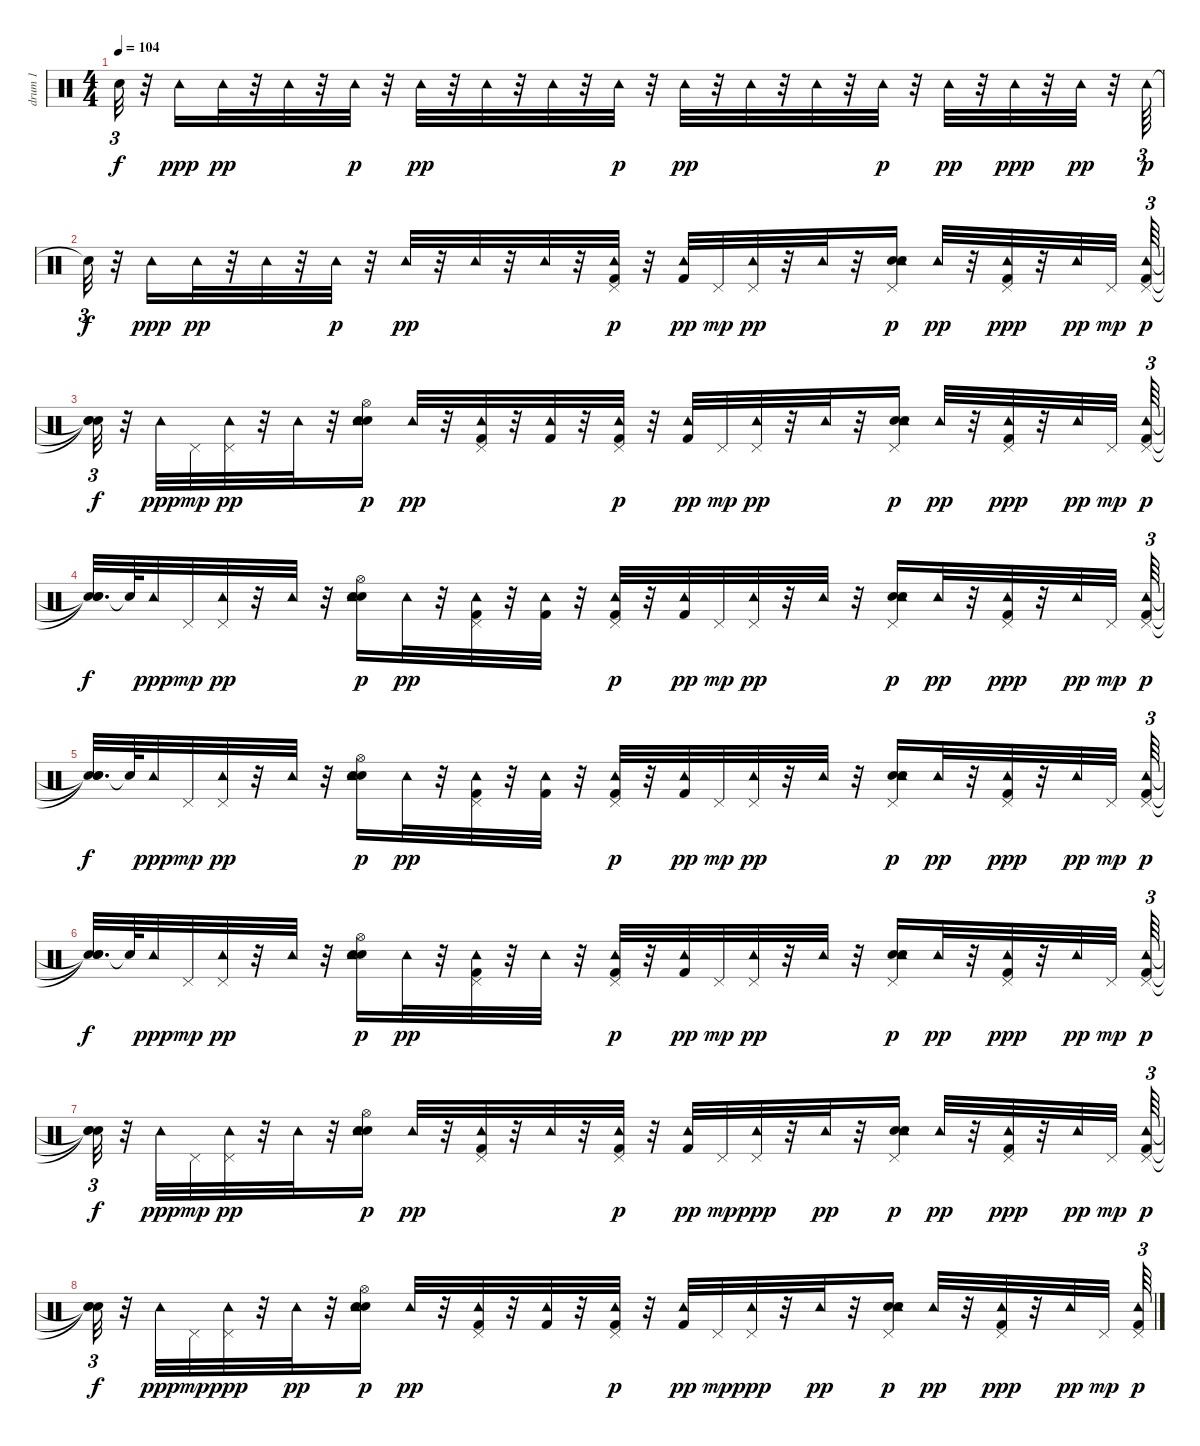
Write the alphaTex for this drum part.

\track ("drum 1" "drum 1") {instrument percussion}
\staff {score}
\articulation defaults
\ts (4 4)
\tempo 104
\clef neutral
\ks c "Snare (hit)"{t}.32{tu (3 2) dy f}
r.32 "Tambourine (hit)".16{dy ppp} "Tambourine (hit)".32{dy pp} r.32 "Tambourine (hit)".32 r.32 "Tambourine (hit)".32{dy p} r.32 "Tambourine (hit)".32{dy pp} r.32 "Tambourine (hit)".32 r.32 "Tambourine (hit)".32 r.32 "Tambourine (hit)".32{dy p} r.32 "Tambourine (hit)".32{dy pp} r.32 "Tambourine (hit)".32 r.32 "Tambourine (hit)".32 r.32 "Tambourine (hit)".32{dy p} r.32 "Tambourine (hit)".32{dy pp} r.32 "Tambourine (hit)".32{dy ppp} r.32 "Tambourine (hit)".32{dy pp} r.32 "Tambourine (hit)".64{tu (3 2) dy p} |
"Snare (hit)"{t}.32{tu (3 2) dy f} r.32 "Tambourine (hit)".16{dy ppp} "Tambourine (hit)".32{dy pp} r.32 "Tambourine (hit)".32 r.32 "Tambourine (hit)".32{dy p} r.32 "Tambourine (hit)".32{dy pp} r.32 "Tambourine (hit)".32 r.32 "Tambourine (hit)".32 r.32 ("Kick (hit) 2" "Pedal Hi-Hat (hit)" "Tambourine (hit)").32{dy p} r.32 ("Kick (hit) 2" "Tambourine (hit)").32{dy pp} "Pedal Hi-Hat (hit)".32{dy mp} ("Pedal Hi-Hat (hit)" "Tambourine (hit)").32{dy pp} r.32 "Tambourine (hit)".32 r.32 ("Hand Clap (hit)" "Electric Snare (hit)" "Pedal Hi-Hat (hit)" "Tambourine (hit)").16{dy p} "Tambourine (hit)".32{dy pp} r.32 ("Kick (hit) 2" "Pedal Hi-Hat (hit)" "Tambourine (hit)").32{dy ppp} r.32 "Tambourine (hit)".32{dy pp} "Pedal Hi-Hat (hit)".32{dy mp beam splitsecondary} ("Kick (hit) 2" "Pedal Hi-Hat (hit)" "Tambourine (hit)").64{tu (3 2) dy p} |
("Snare (hit)"{t} "Snare (hit)"{t} "Snare (hit)"{t}).32{tu (3 2) dy f} r.32 "Tambourine (hit)".32{dy ppp} "Pedal Hi-Hat (hit)".32{dy mp} ("Pedal Hi-Hat (hit)" "Tambourine (hit)").32{dy pp} r.32 "Tambourine (hit)".32 r.32 ("Hand Clap (hit)" "Electric Snare (hit)" "Hi-Hat (open)" "Tambourine (hit)").16{dy p} "Tambourine (hit)".32{dy pp} r.32 ("Kick (hit) 2" "Pedal Hi-Hat (hit)" "Tambourine (hit)").32 r.32 ("Kick (hit) 2" "Tambourine (hit)").32 r.32 ("Kick (hit) 2" "Pedal Hi-Hat (hit)" "Tambourine (hit)").32{dy p} r.32 ("Kick (hit) 2" "Tambourine (hit)").32{dy pp} "Pedal Hi-Hat (hit)".32{dy mp} ("Pedal Hi-Hat (hit)" "Tambourine (hit)").32{dy pp} r.32 "Tambourine (hit)".32 r.32 ("Hand Clap (hit)" "Electric Snare (hit)" "Pedal Hi-Hat (hit)" "Tambourine (hit)").16{dy p} "Tambourine (hit)".32{dy pp} r.32 ("Kick (hit) 2" "Pedal Hi-Hat (hit)" "Tambourine (hit)").32{dy ppp} r.32 "Tambourine (hit)".32{dy pp} "Pedal Hi-Hat (hit)".32{dy mp beam splitsecondary} ("Kick (hit) 2" "Pedal Hi-Hat (hit)" "Tambourine (hit)").64{tu (3 2) dy p} |
("Snare (hit)"{t} "Snare (hit)"{t} "Snare (hit)"{t}).32{d dy f} "Snare (hit)"{t}.64 "Tambourine (hit)".32{dy ppp} "Pedal Hi-Hat (hit)".32{dy mp} ("Pedal Hi-Hat (hit)" "Tambourine (hit)").32{dy pp} r.32 "Tambourine (hit)".32 r.32 ("Hand Clap (hit)" "Electric Snare (hit)" "Hi-Hat (open)" "Tambourine (hit)").16{dy p} "Tambourine (hit)".32{dy pp} r.32 ("Kick (hit) 2" "Pedal Hi-Hat (hit)" "Tambourine (hit)").32 r.32 ("Kick (hit) 2" "Tambourine (hit)").32 r.32 ("Kick (hit) 2" "Pedal Hi-Hat (hit)" "Tambourine (hit)").32{dy p} r.32 ("Kick (hit) 2" "Tambourine (hit)").32{dy pp} "Pedal Hi-Hat (hit)".32{dy mp} ("Pedal Hi-Hat (hit)" "Tambourine (hit)").32{dy pp} r.32 "Tambourine (hit)".32 r.32 ("Hand Clap (hit)" "Electric Snare (hit)" "Pedal Hi-Hat (hit)" "Tambourine (hit)").16{dy p} "Tambourine (hit)".32{dy pp} r.32 ("Kick (hit) 2" "Pedal Hi-Hat (hit)" "Tambourine (hit)").32{dy ppp} r.32 "Tambourine (hit)".32{dy pp} "Pedal Hi-Hat (hit)".32{dy mp} ("Kick (hit) 2" "Pedal Hi-Hat (hit)" "Tambourine (hit)").64{tu (3 2) dy p} |
("Snare (hit)"{t} "Snare (hit)"{t} "Snare (hit)"{t}).32{d dy f} "Snare (hit)"{t}.64 "Tambourine (hit)".32{dy ppp} "Pedal Hi-Hat (hit)".32{dy mp} ("Pedal Hi-Hat (hit)" "Tambourine (hit)").32{dy pp} r.32 "Tambourine (hit)".32 r.32 ("Hand Clap (hit)" "Electric Snare (hit)" "Hi-Hat (open)" "Tambourine (hit)").16{dy p} "Tambourine (hit)".32{dy pp} r.32 ("Kick (hit) 2" "Pedal Hi-Hat (hit)" "Tambourine (hit)").32 r.32 ("Kick (hit) 2" "Tambourine (hit)").32 r.32 ("Kick (hit) 2" "Pedal Hi-Hat (hit)" "Tambourine (hit)").32{dy p} r.32 ("Kick (hit) 2" "Tambourine (hit)").32{dy pp} "Pedal Hi-Hat (hit)".32{dy mp} ("Pedal Hi-Hat (hit)" "Tambourine (hit)").32{dy pp} r.32 "Tambourine (hit)".32 r.32 ("Hand Clap (hit)" "Electric Snare (hit)" "Pedal Hi-Hat (hit)" "Tambourine (hit)").16{dy p} "Tambourine (hit)".32{dy pp} r.32 ("Kick (hit) 2" "Pedal Hi-Hat (hit)" "Tambourine (hit)").32{dy ppp} r.32 "Tambourine (hit)".32{dy pp} "Pedal Hi-Hat (hit)".32{dy mp} ("Kick (hit) 2" "Pedal Hi-Hat (hit)" "Tambourine (hit)").64{tu (3 2) dy p} |
("Snare (hit)"{t} "Snare (hit)"{t} "Snare (hit)"{t}).32{d dy f} "Snare (hit)"{t}.64 "Tambourine (hit)".32{dy ppp} "Pedal Hi-Hat (hit)".32{dy mp} ("Pedal Hi-Hat (hit)" "Tambourine (hit)").32{dy pp} r.32 "Tambourine (hit)".32 r.32 ("Hand Clap (hit)" "Electric Snare (hit)" "Hi-Hat (open)" "Tambourine (hit)").16{dy p} "Tambourine (hit)".32{dy pp} r.32 ("Kick (hit) 2" "Pedal Hi-Hat (hit)" "Tambourine (hit)").32 r.32 "Tambourine (hit)".32 r.32 ("Kick (hit) 2" "Pedal Hi-Hat (hit)" "Tambourine (hit)").32{dy p} r.32 ("Kick (hit) 2" "Tambourine (hit)").32{dy pp} "Pedal Hi-Hat (hit)".32{dy mp} ("Pedal Hi-Hat (hit)" "Tambourine (hit)").32{dy pp} r.32 "Tambourine (hit)".32 r.32 ("Hand Clap (hit)" "Electric Snare (hit)" "Pedal Hi-Hat (hit)" "Tambourine (hit)").16{dy p} "Tambourine (hit)".32{dy pp} r.32 ("Kick (hit) 2" "Pedal Hi-Hat (hit)" "Tambourine (hit)").32{dy ppp} r.32 "Tambourine (hit)".32{dy pp} "Pedal Hi-Hat (hit)".32{dy mp} ("Kick (hit) 2" "Pedal Hi-Hat (hit)" "Tambourine (hit)").64{tu (3 2) dy p} |
("Snare (hit)"{t} "Snare (hit)"{t} "Snare (hit)"{t}).32{tu (3 2) dy f} r.32 "Tambourine (hit)".32{dy ppp} "Pedal Hi-Hat (hit)".32{dy mp} ("Pedal Hi-Hat (hit)" "Tambourine (hit)").32{dy pp} r.32 "Tambourine (hit)".32 r.32 ("Hand Clap (hit)" "Electric Snare (hit)" "Hi-Hat (open)" "Tambourine (hit)").16{dy p} "Tambourine (hit)".32{dy pp} r.32 ("Kick (hit) 2" "Pedal Hi-Hat (hit)" "Tambourine (hit)").32 r.32 "Tambourine (hit)".32 r.32 ("Kick (hit) 2" "Pedal Hi-Hat (hit)" "Tambourine (hit)").32{dy p} r.32 ("Kick (hit) 2" "Tambourine (hit)").32{dy pp} "Pedal Hi-Hat (hit)".32{dy mp} ("Pedal Hi-Hat (hit)" "Tambourine (hit)").32{dy ppp} r.32 "Tambourine (hit)".32{dy pp} r.32 ("Hand Clap (hit)" "Electric Snare (hit)" "Pedal Hi-Hat (hit)" "Tambourine (hit)").16{dy p} "Tambourine (hit)".32{dy pp} r.32 ("Kick (hit) 2" "Pedal Hi-Hat (hit)" "Tambourine (hit)").32{dy ppp} r.32 "Tambourine (hit)".32{dy pp} "Pedal Hi-Hat (hit)".32{dy mp beam splitsecondary} ("Kick (hit) 2" "Pedal Hi-Hat (hit)" "Tambourine (hit)").64{tu (3 2) dy p} |
("Snare (hit)"{t} "Snare (hit)"{t} "Snare (hit)"{t}).32{tu (3 2) dy f} r.32 "Tambourine (hit)".32{dy ppp} "Pedal Hi-Hat (hit)".32{dy mp} ("Pedal Hi-Hat (hit)" "Tambourine (hit)").32{dy ppp} r.32 "Tambourine (hit)".32{dy pp} r.32 ("Hand Clap (hit)" "Electric Snare (hit)" "Hi-Hat (open)" "Tambourine (hit)").16{dy p} "Tambourine (hit)".32{dy pp} r.32 ("Kick (hit) 2" "Pedal Hi-Hat (hit)" "Tambourine (hit)").32 r.32 ("Kick (hit) 2" "Tambourine (hit)").32 r.32 ("Kick (hit) 2" "Pedal Hi-Hat (hit)" "Tambourine (hit)").32{dy p} r.32 ("Kick (hit) 2" "Tambourine (hit)").32{dy pp} "Pedal Hi-Hat (hit)".32{dy mp} ("Pedal Hi-Hat (hit)" "Tambourine (hit)").32{dy ppp} r.32 "Tambourine (hit)".32{dy pp} r.32 ("Hand Clap (hit)" "Electric Snare (hit)" "Pedal Hi-Hat (hit)" "Tambourine (hit)").16{dy p} "Tambourine (hit)".32{dy pp} r.32 ("Kick (hit) 2" "Pedal Hi-Hat (hit)" "Tambourine (hit)").32{dy ppp} r.32 "Tambourine (hit)".32{dy pp} "Pedal Hi-Hat (hit)".32{dy mp beam splitsecondary} ("Kick (hit) 2" "Pedal Hi-Hat (hit)" "Tambourine (hit)").64{tu (3 2) dy p}
